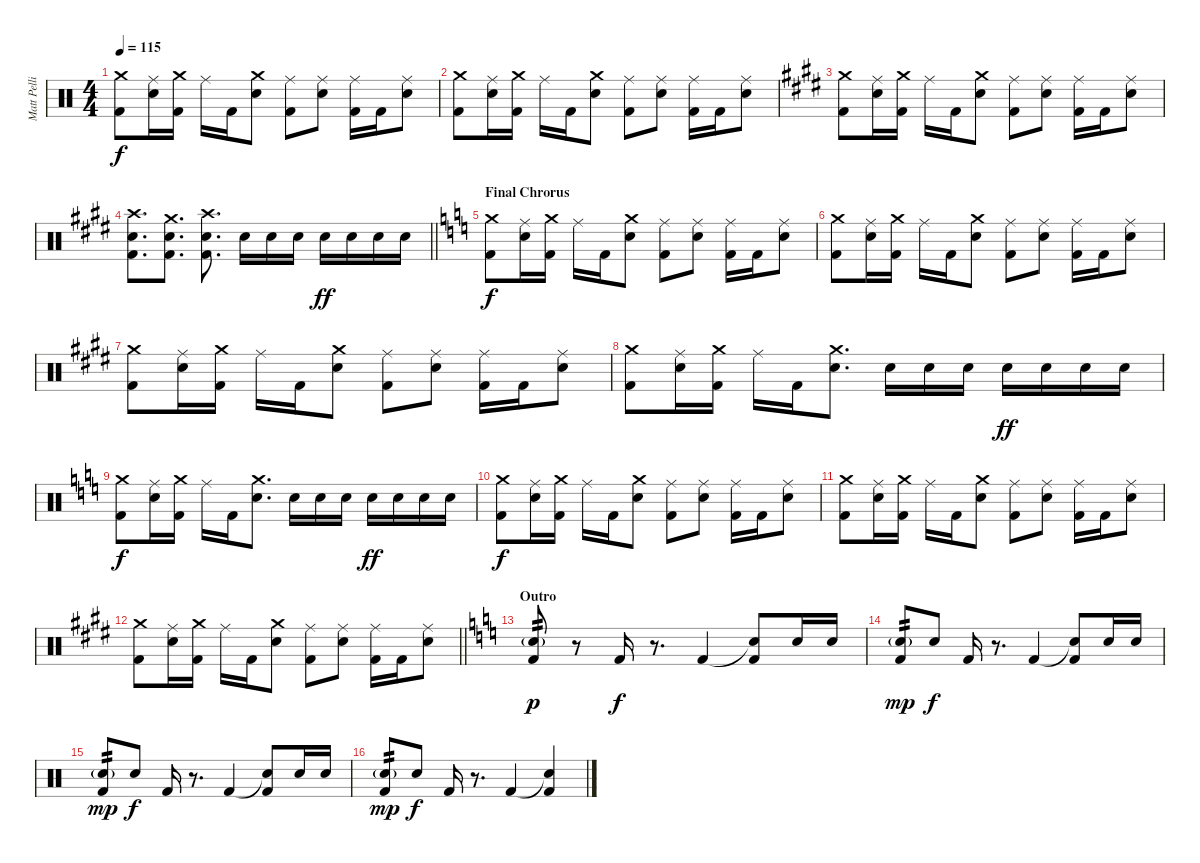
\track ("Matt Pellissier" "Matt Pelli") {instrument percussion}
\staff {score}
\articulation defaults
\ts (4 4)
\tempo 115
\clef neutral
\ks c
("Crash medium (hit)" "Kick (hit) 2").8{dy f} ("Ride (middle)" "Snare (hit) 2").16 ("Crash medium (hit)" "Kick (hit) 2").16 "Ride (middle)".16 "Kick (hit) 2".16 ("Crash medium (hit)" "Snare (hit) 2").8 ("Ride (middle)" "Kick (hit) 2").8 ("Ride (middle)" "Snare (hit) 2").8 ("Ride (middle)" "Kick (hit) 2").16 "Kick (hit) 2".16 ("Ride (middle)" "Snare (hit) 2").8 |
("Crash medium (hit)" "Kick (hit) 2").8 ("Ride (middle)" "Snare (hit) 2").16 ("Crash medium (hit)" "Kick (hit) 2").16 "Ride (middle)".16 "Kick (hit) 2".16 ("Crash medium (hit)" "Snare (hit) 2").8 ("Ride (middle)" "Kick (hit) 2").8 ("Ride (middle)" "Snare (hit) 2").8 ("Ride (middle)" "Kick (hit) 2").16 "Kick (hit) 2".16 ("Ride (middle)" "Snare (hit) 2").8 |
\ks e
("Crash medium (hit)" "Kick (hit) 2").8 ("Ride (middle)" "Snare (hit) 2").16 ("Crash medium (hit)" "Kick (hit) 2").16 "Ride (middle)".16 "Kick (hit) 2".16 ("Crash medium (hit)" "Snare (hit) 2").8 ("Ride (middle)" "Kick (hit) 2").8 ("Ride (middle)" "Snare (hit) 2").8 ("Ride (middle)" "Kick (hit) 2").16 "Kick (hit) 2".16 ("Ride (middle)" "Snare (hit) 2").8 |
\barLineRight lightlight
("Crash high (hit)" "Snare (hit) 2" "Kick (hit) 2").8{d} ("Crash medium (hit)" "Snare (hit) 2" "Kick (hit) 2").8{d} ("Crash high (hit)" "Snare (hit) 2" "Kick (hit) 2").8{d} "Snare (hit) 2".16 "Snare (hit) 2".16 "Snare (hit) 2".16 "Snare (hit) 2".16{dy ff} "Snare (hit) 2".16 "Snare (hit) 2".16 "Snare (hit) 2".16 |
\section ("" "Final Chrorus")
\ks c
("Crash medium (hit)" "Kick (hit) 2").8{dy f} ("Ride (middle)" "Snare (hit) 2").16 ("Crash medium (hit)" "Kick (hit) 2").16 "Ride (middle)".16 "Kick (hit) 2".16 ("Crash medium (hit)" "Snare (hit) 2").8 ("Ride (middle)" "Kick (hit) 2").8 ("Ride (middle)" "Snare (hit) 2").8 ("Ride (middle)" "Kick (hit) 2").16 "Kick (hit) 2".16 ("Ride (middle)" "Snare (hit) 2").8 |
("Crash medium (hit)" "Kick (hit) 2").8 ("Ride (middle)" "Snare (hit) 2").16 ("Crash medium (hit)" "Kick (hit) 2").16 "Ride (middle)".16 "Kick (hit) 2".16 ("Crash medium (hit)" "Snare (hit) 2").8 ("Ride (middle)" "Kick (hit) 2").8 ("Ride (middle)" "Snare (hit) 2").8 ("Ride (middle)" "Kick (hit) 2").16 "Kick (hit) 2".16 ("Ride (middle)" "Snare (hit) 2").8 |
\ks e
("Crash medium (hit)" "Kick (hit) 2").8 ("Ride (middle)" "Snare (hit) 2").16 ("Crash medium (hit)" "Kick (hit) 2").16 "Ride (middle)".16 "Kick (hit) 2".16 ("Crash medium (hit)" "Snare (hit) 2").8 ("Ride (middle)" "Kick (hit) 2").8 ("Ride (middle)" "Snare (hit) 2").8 ("Ride (middle)" "Kick (hit) 2").16 "Kick (hit) 2".16 ("Ride (middle)" "Snare (hit) 2").8 |
("Crash medium (hit)" "Kick (hit) 2").8 ("Ride (middle)" "Snare (hit) 2").16 ("Crash medium (hit)" "Kick (hit) 2").16 "Ride (middle)".16 "Kick (hit) 2".16 ("Crash medium (hit)" "Snare (hit) 2").8{d} "Snare (hit) 2".16 "Snare (hit) 2".16 "Snare (hit) 2".16 "Snare (hit) 2".16{dy ff} "Snare (hit) 2".16 "Snare (hit) 2".16 "Snare (hit) 2".16 |
\ks c
("Crash medium (hit)" "Kick (hit) 2").8{dy f} ("Ride (middle)" "Snare (hit) 2").16 ("Crash medium (hit)" "Kick (hit) 2").16 "Ride (middle)".16 "Kick (hit) 2".16 ("Crash medium (hit)" "Snare (hit) 2").8{d} "Snare (hit) 2".16 "Snare (hit) 2".16 "Snare (hit) 2".16 "Snare (hit) 2".16{dy ff} "Snare (hit) 2".16 "Snare (hit) 2".16 "Snare (hit) 2".16 |
("Crash medium (hit)" "Kick (hit) 2").8{dy f} ("Ride (middle)" "Snare (hit) 2").16 ("Crash medium (hit)" "Kick (hit) 2").16 "Ride (middle)".16 "Kick (hit) 2".16 ("Crash medium (hit)" "Snare (hit) 2").8 ("Ride (middle)" "Kick (hit) 2").8 ("Ride (middle)" "Snare (hit) 2").8 ("Ride (middle)" "Kick (hit) 2").16 "Kick (hit) 2".16 ("Ride (middle)" "Snare (hit) 2").8 |
("Crash medium (hit)" "Kick (hit) 2").8 ("Ride (middle)" "Snare (hit) 2").16 ("Crash medium (hit)" "Kick (hit) 2").16 "Ride (middle)".16 "Kick (hit) 2".16 ("Crash medium (hit)" "Snare (hit) 2").8 ("Ride (middle)" "Kick (hit) 2").8 ("Ride (middle)" "Snare (hit) 2").8 ("Ride (middle)" "Kick (hit) 2").16 "Kick (hit) 2".16 ("Ride (middle)" "Snare (hit) 2").8 |
\barLineRight lightlight
\ks e
("Crash medium (hit)" "Kick (hit) 2").8 ("Ride (middle)" "Snare (hit) 2").16 ("Crash medium (hit)" "Kick (hit) 2").16 "Ride (middle)".16 "Kick (hit) 2".16 ("Crash medium (hit)" "Snare (hit) 2").8 ("Ride (middle)" "Kick (hit) 2").8 ("Ride (middle)" "Snare (hit) 2").8 ("Ride (middle)" "Kick (hit) 2").16 "Kick (hit) 2".16 ("Ride (middle)" "Snare (hit) 2").8 |
\section ("" "Outro")
\ks c
("Snare (hit) 2"{g} "Kick (hit) 2").8{tp 2 dy p} r.8 "Kick (hit) 2".16{dy f} r.8{d} "Kick (hit) 2".4 ("Snare (hit)"{t} "Kick (hit) 2").8 "Snare (hit) 2".16 "Snare (hit) 2".16 |
("Snare (hit) 2"{g} "Kick (hit) 2").8{tp 2 dy mp} "Snare (hit) 2".8{dy f} "Kick (hit) 2".16 r.8{d} "Kick (hit) 2".4 ("Snare (hit)"{t} "Kick (hit) 2").8 "Snare (hit) 2".16 "Snare (hit) 2".16 |
("Snare (hit) 2"{g} "Kick (hit) 2").8{tp 2 dy mp} "Snare (hit) 2".8{dy f} "Kick (hit) 2".16 r.8{d} "Kick (hit) 2".4 ("Snare (hit)"{t} "Kick (hit) 2").8 "Snare (hit) 2".16 "Snare (hit) 2".16 |
("Snare (hit) 2"{g} "Kick (hit) 2").8{tp 2 dy mp} "Snare (hit) 2".8{dy f} "Kick (hit) 2".16 r.8{d} "Kick (hit) 2".4 ("Snare (hit)"{t} "Kick (hit) 2").4
